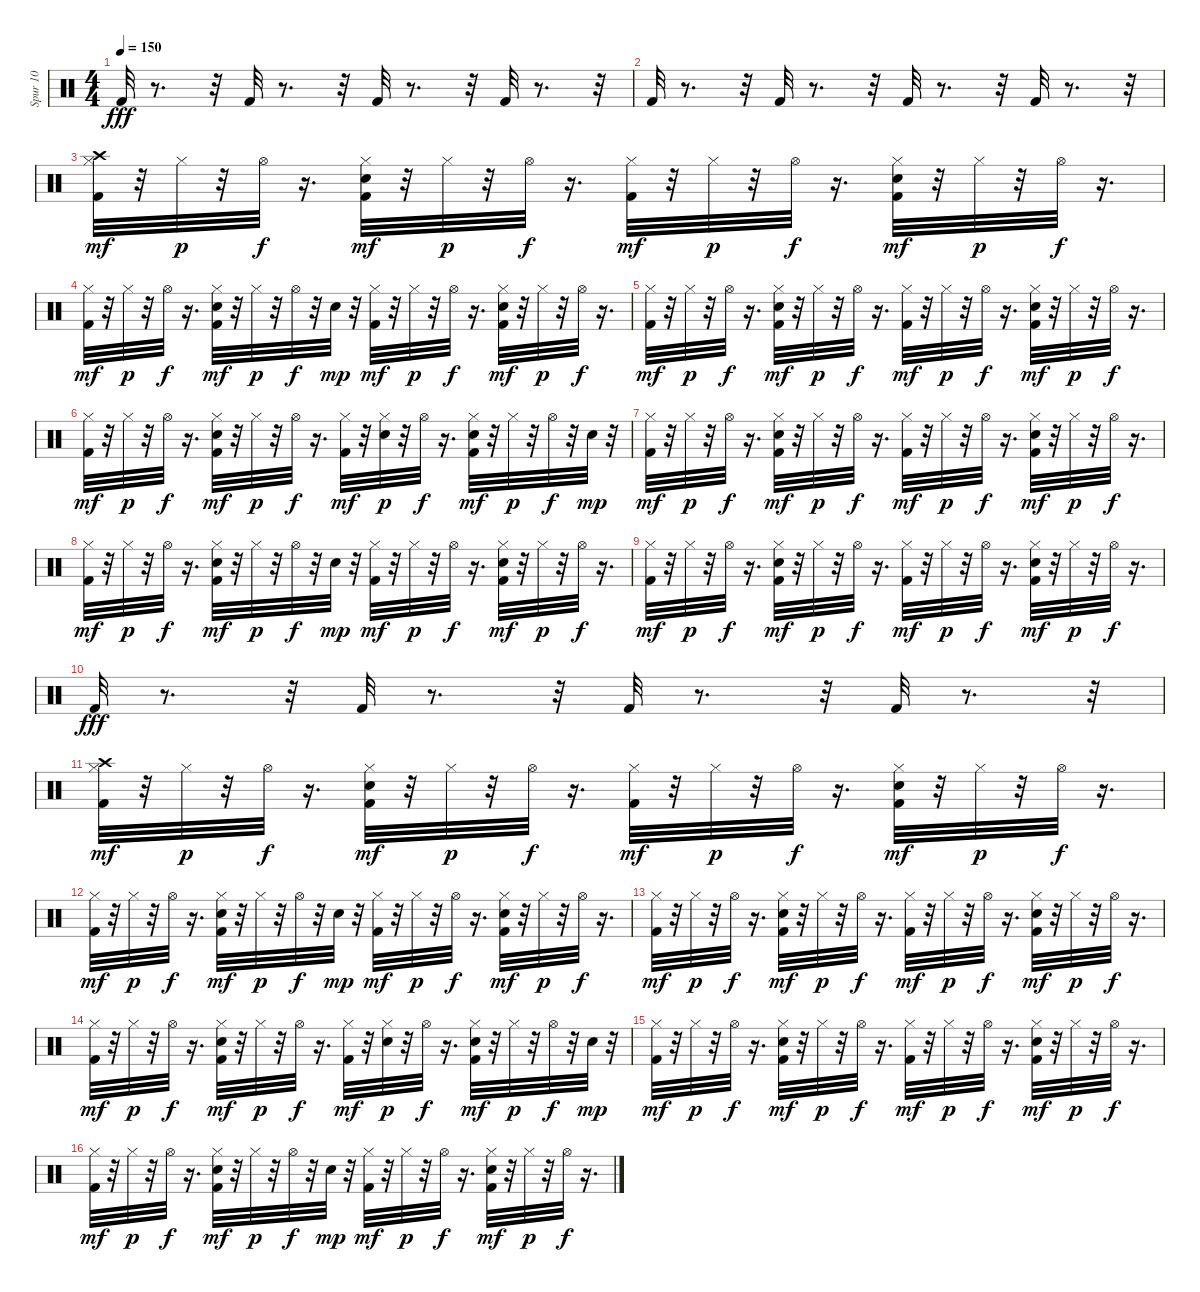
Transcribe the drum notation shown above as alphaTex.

\track ("Spur 10" "Spur 10") {instrument percussion}
\staff {score}
\articulation defaults
\ts (4 4)
\tempo 150
\clef neutral
\ks c "Kick (hit) 2".32{dy fff}
r.8{d} r.32 "Kick (hit) 2".32 r.8{d} r.32 "Kick (hit) 2".32 r.8{d} r.32 "Kick (hit) 2".32 r.8{d} r.32 |
"Kick (hit) 2".32 r.8{d} r.32 "Kick (hit) 2".32 r.8{d} r.32 "Kick (hit) 2".32 r.8{d} r.32 "Kick (hit) 2".32 r.8{d} r.32 |
("Crash high (hit)" "Kick (hit) 2" "Hi-Hat (closed)").32{dy mf} r.32 "Hi-Hat (closed)".32{dy p} r.32 "Hi-Hat (open)".32{dy f} r.16{d} ("Kick (hit) 2" "Snare (hit) 2" "Hi-Hat (closed)").32{dy mf} r.32 "Hi-Hat (closed)".32{dy p} r.32 "Hi-Hat (open)".32{dy f} r.16{d} ("Kick (hit) 2" "Hi-Hat (closed)").32{dy mf} r.32 "Hi-Hat (closed)".32{dy p} r.32 "Hi-Hat (open)".32{dy f} r.16{d} ("Kick (hit) 2" "Snare (hit) 2" "Hi-Hat (closed)").32{dy mf} r.32 "Hi-Hat (closed)".32{dy p} r.32 "Hi-Hat (open)".32{dy f} r.16{d} |
("Kick (hit) 2" "Hi-Hat (closed)").32{dy mf} r.32 "Hi-Hat (closed)".32{dy p} r.32 "Hi-Hat (open)".32{dy f} r.16{d} ("Kick (hit) 2" "Snare (hit) 2" "Hi-Hat (closed)").32{dy mf} r.32 "Hi-Hat (closed)".32{dy p} r.32 "Hi-Hat (open)".32{dy f} r.32 "Snare (hit) 2".32{dy mp} r.32 ("Kick (hit) 2" "Hi-Hat (closed)").32{dy mf} r.32 "Hi-Hat (closed)".32{dy p} r.32 "Hi-Hat (open)".32{dy f} r.16{d} ("Kick (hit) 2" "Snare (hit) 2" "Hi-Hat (closed)").32{dy mf} r.32 "Hi-Hat (closed)".32{dy p} r.32 "Hi-Hat (open)".32{dy f} r.16{d} |
("Kick (hit) 2" "Hi-Hat (closed)").32{dy mf} r.32 "Hi-Hat (closed)".32{dy p} r.32 "Hi-Hat (open)".32{dy f} r.16{d} ("Kick (hit) 2" "Snare (hit) 2" "Hi-Hat (closed)").32{dy mf} r.32 "Hi-Hat (closed)".32{dy p} r.32 "Hi-Hat (open)".32{dy f} r.16{d} ("Kick (hit) 2" "Hi-Hat (closed)").32{dy mf} r.32 "Hi-Hat (closed)".32{dy p} r.32 "Hi-Hat (open)".32{dy f} r.16{d} ("Kick (hit) 2" "Snare (hit) 2" "Hi-Hat (closed)").32{dy mf} r.32 "Hi-Hat (closed)".32{dy p} r.32 "Hi-Hat (open)".32{dy f} r.16{d} |
("Kick (hit) 2" "Hi-Hat (closed)").32{dy mf} r.32 "Hi-Hat (closed)".32{dy p} r.32 "Hi-Hat (open)".32{dy f} r.16{d} ("Kick (hit) 2" "Snare (hit) 2" "Hi-Hat (closed)").32{dy mf} r.32 "Hi-Hat (closed)".32{dy p} r.32 "Hi-Hat (open)".32{dy f} r.16{d} ("Kick (hit) 2" "Hi-Hat (closed)").32{dy mf} r.32 ("Snare (hit) 2" "Hi-Hat (closed)").32{dy p} r.32 "Hi-Hat (open)".32{dy f} r.16{d} ("Kick (hit) 2" "Snare (hit) 2" "Hi-Hat (closed)").32{dy mf} r.32 "Hi-Hat (closed)".32{dy p} r.32 "Hi-Hat (open)".32{dy f} r.32 "Snare (hit) 2".32{dy mp} r.32 |
("Kick (hit) 2" "Hi-Hat (closed)").32{dy mf} r.32 "Hi-Hat (closed)".32{dy p} r.32 "Hi-Hat (open)".32{dy f} r.16{d} ("Kick (hit) 2" "Snare (hit) 2" "Hi-Hat (closed)").32{dy mf} r.32 "Hi-Hat (closed)".32{dy p} r.32 "Hi-Hat (open)".32{dy f} r.16{d} ("Kick (hit) 2" "Hi-Hat (closed)").32{dy mf} r.32 "Hi-Hat (closed)".32{dy p} r.32 "Hi-Hat (open)".32{dy f} r.16{d} ("Kick (hit) 2" "Snare (hit) 2" "Hi-Hat (closed)").32{dy mf} r.32 "Hi-Hat (closed)".32{dy p} r.32 "Hi-Hat (open)".32{dy f} r.16{d} |
("Kick (hit) 2" "Hi-Hat (closed)").32{dy mf} r.32 "Hi-Hat (closed)".32{dy p} r.32 "Hi-Hat (open)".32{dy f} r.16{d} ("Kick (hit) 2" "Snare (hit) 2" "Hi-Hat (closed)").32{dy mf} r.32 "Hi-Hat (closed)".32{dy p} r.32 "Hi-Hat (open)".32{dy f} r.32 "Snare (hit) 2".32{dy mp} r.32 ("Kick (hit) 2" "Hi-Hat (closed)").32{dy mf} r.32 "Hi-Hat (closed)".32{dy p} r.32 "Hi-Hat (open)".32{dy f} r.16{d} ("Kick (hit) 2" "Snare (hit) 2" "Hi-Hat (closed)").32{dy mf} r.32 "Hi-Hat (closed)".32{dy p} r.32 "Hi-Hat (open)".32{dy f} r.16{d} |
("Kick (hit) 2" "Hi-Hat (closed)").32{dy mf} r.32 "Hi-Hat (closed)".32{dy p} r.32 "Hi-Hat (open)".32{dy f} r.16{d} ("Kick (hit) 2" "Snare (hit) 2" "Hi-Hat (closed)").32{dy mf} r.32 "Hi-Hat (closed)".32{dy p} r.32 "Hi-Hat (open)".32{dy f} r.16{d} ("Kick (hit) 2" "Hi-Hat (closed)").32{dy mf} r.32 "Hi-Hat (closed)".32{dy p} r.32 "Hi-Hat (open)".32{dy f} r.16{d} ("Kick (hit) 2" "Snare (hit) 2" "Hi-Hat (closed)").32{dy mf} r.32 "Hi-Hat (closed)".32{dy p} r.32 "Hi-Hat (open)".32{dy f} r.16{d} |
"Kick (hit) 2".32{dy fff} r.8{d} r.32 "Kick (hit) 2".32 r.8{d} r.32 "Kick (hit) 2".32 r.8{d} r.32 "Kick (hit) 2".32 r.8{d} r.32 |
("Crash high (hit)" "Kick (hit) 2" "Hi-Hat (closed)").32{dy mf} r.32 "Hi-Hat (closed)".32{dy p} r.32 "Hi-Hat (open)".32{dy f} r.16{d} ("Kick (hit) 2" "Snare (hit) 2" "Hi-Hat (closed)").32{dy mf} r.32 "Hi-Hat (closed)".32{dy p} r.32 "Hi-Hat (open)".32{dy f} r.16{d} ("Kick (hit) 2" "Hi-Hat (closed)").32{dy mf} r.32 "Hi-Hat (closed)".32{dy p} r.32 "Hi-Hat (open)".32{dy f} r.16{d} ("Kick (hit) 2" "Snare (hit) 2" "Hi-Hat (closed)").32{dy mf} r.32 "Hi-Hat (closed)".32{dy p} r.32 "Hi-Hat (open)".32{dy f} r.16{d} |
("Kick (hit) 2" "Hi-Hat (closed)").32{dy mf} r.32 "Hi-Hat (closed)".32{dy p} r.32 "Hi-Hat (open)".32{dy f} r.16{d} ("Kick (hit) 2" "Snare (hit) 2" "Hi-Hat (closed)").32{dy mf} r.32 "Hi-Hat (closed)".32{dy p} r.32 "Hi-Hat (open)".32{dy f} r.32 "Snare (hit) 2".32{dy mp} r.32 ("Kick (hit) 2" "Hi-Hat (closed)").32{dy mf} r.32 "Hi-Hat (closed)".32{dy p} r.32 "Hi-Hat (open)".32{dy f} r.16{d} ("Kick (hit) 2" "Snare (hit) 2" "Hi-Hat (closed)").32{dy mf} r.32 "Hi-Hat (closed)".32{dy p} r.32 "Hi-Hat (open)".32{dy f} r.16{d} |
("Kick (hit) 2" "Hi-Hat (closed)").32{dy mf} r.32 "Hi-Hat (closed)".32{dy p} r.32 "Hi-Hat (open)".32{dy f} r.16{d} ("Kick (hit) 2" "Snare (hit) 2" "Hi-Hat (closed)").32{dy mf} r.32 "Hi-Hat (closed)".32{dy p} r.32 "Hi-Hat (open)".32{dy f} r.16{d} ("Kick (hit) 2" "Hi-Hat (closed)").32{dy mf} r.32 "Hi-Hat (closed)".32{dy p} r.32 "Hi-Hat (open)".32{dy f} r.16{d} ("Kick (hit) 2" "Snare (hit) 2" "Hi-Hat (closed)").32{dy mf} r.32 "Hi-Hat (closed)".32{dy p} r.32 "Hi-Hat (open)".32{dy f} r.16{d} |
("Kick (hit) 2" "Hi-Hat (closed)").32{dy mf} r.32 "Hi-Hat (closed)".32{dy p} r.32 "Hi-Hat (open)".32{dy f} r.16{d} ("Kick (hit) 2" "Snare (hit) 2" "Hi-Hat (closed)").32{dy mf} r.32 "Hi-Hat (closed)".32{dy p} r.32 "Hi-Hat (open)".32{dy f} r.16{d} ("Kick (hit) 2" "Hi-Hat (closed)").32{dy mf} r.32 ("Snare (hit) 2" "Hi-Hat (closed)").32{dy p} r.32 "Hi-Hat (open)".32{dy f} r.16{d} ("Kick (hit) 2" "Snare (hit) 2" "Hi-Hat (closed)").32{dy mf} r.32 "Hi-Hat (closed)".32{dy p} r.32 "Hi-Hat (open)".32{dy f} r.32 "Snare (hit) 2".32{dy mp} r.32 |
("Kick (hit) 2" "Hi-Hat (closed)").32{dy mf} r.32 "Hi-Hat (closed)".32{dy p} r.32 "Hi-Hat (open)".32{dy f} r.16{d} ("Kick (hit) 2" "Snare (hit) 2" "Hi-Hat (closed)").32{dy mf} r.32 "Hi-Hat (closed)".32{dy p} r.32 "Hi-Hat (open)".32{dy f} r.16{d} ("Kick (hit) 2" "Hi-Hat (closed)").32{dy mf} r.32 "Hi-Hat (closed)".32{dy p} r.32 "Hi-Hat (open)".32{dy f} r.16{d} ("Kick (hit) 2" "Snare (hit) 2" "Hi-Hat (closed)").32{dy mf} r.32 "Hi-Hat (closed)".32{dy p} r.32 "Hi-Hat (open)".32{dy f} r.16{d} |
("Kick (hit) 2" "Hi-Hat (closed)").32{dy mf} r.32 "Hi-Hat (closed)".32{dy p} r.32 "Hi-Hat (open)".32{dy f} r.16{d} ("Kick (hit) 2" "Snare (hit) 2" "Hi-Hat (closed)").32{dy mf} r.32 "Hi-Hat (closed)".32{dy p} r.32 "Hi-Hat (open)".32{dy f} r.32 "Snare (hit) 2".32{dy mp} r.32 ("Kick (hit) 2" "Hi-Hat (closed)").32{dy mf} r.32 "Hi-Hat (closed)".32{dy p} r.32 "Hi-Hat (open)".32{dy f} r.16{d} ("Kick (hit) 2" "Snare (hit) 2" "Hi-Hat (closed)").32{dy mf} r.32 "Hi-Hat (closed)".32{dy p} r.32 "Hi-Hat (open)".32{dy f} r.16{d}
